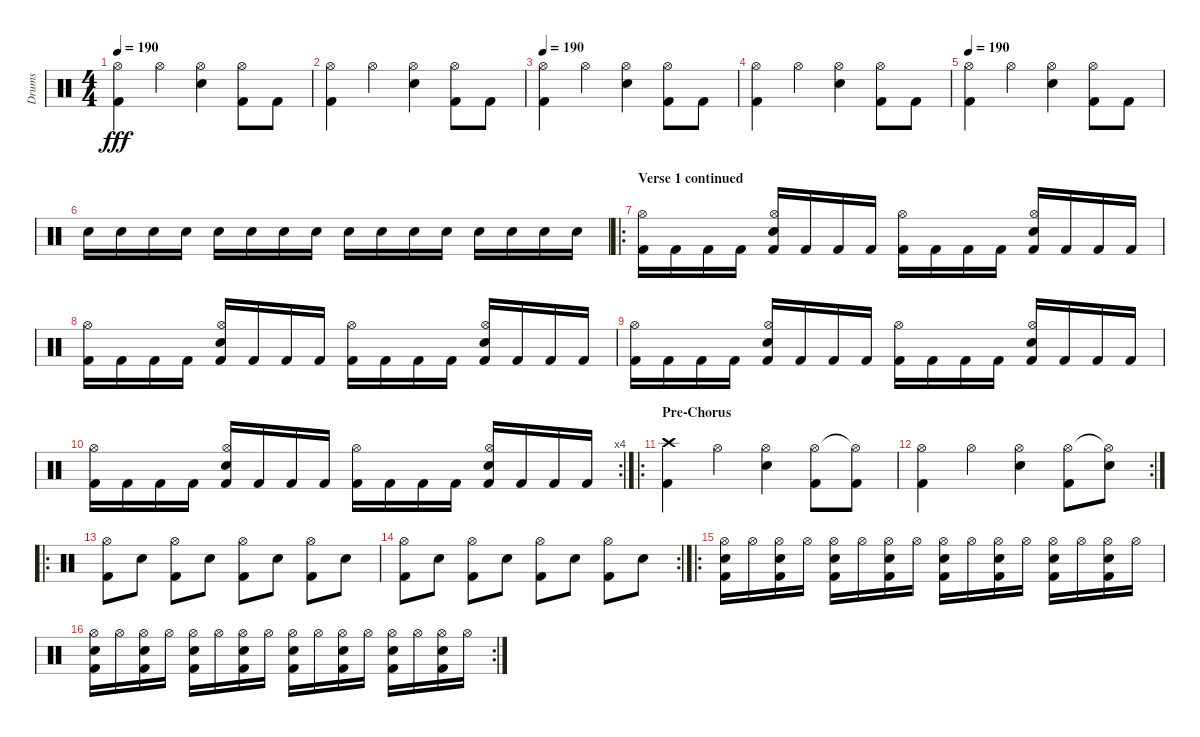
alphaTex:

\track ("Drums" "Drums") {instrument percussion}
\staff {score}
\articulation defaults
\ts (4 4)
\tempo 190
\clef neutral
\ks c
("Kick (hit) 2" "Hi-Hat (open)").4{dy fff} "Hi-Hat (open)".4 ("Hi-Hat (open)" "Electric Snare (hit)").4 ("Kick (hit) 2" "Hi-Hat (open)").8 "Kick (hit) 2".8 |
("Kick (hit) 2" "Hi-Hat (open)").4 "Hi-Hat (open)".4 ("Hi-Hat (open)" "Electric Snare (hit)").4 ("Kick (hit) 2" "Hi-Hat (open)").8 "Kick (hit) 2".8 |
\tempo 190
("Kick (hit) 2" "Hi-Hat (open)").4 "Hi-Hat (open)".4 ("Hi-Hat (open)" "Electric Snare (hit)").4 ("Kick (hit) 2" "Hi-Hat (open)").8 "Kick (hit) 2".8 |
("Kick (hit) 2" "Hi-Hat (open)").4 "Hi-Hat (open)".4 ("Hi-Hat (open)" "Electric Snare (hit)").4 ("Kick (hit) 2" "Hi-Hat (open)").8 "Kick (hit) 2".8 |
\tempo 190
("Kick (hit) 2" "Hi-Hat (open)").4 "Hi-Hat (open)".4 ("Hi-Hat (open)" "Electric Snare (hit)").4 ("Kick (hit) 2" "Hi-Hat (open)").8 "Kick (hit) 2".8 |
"Electric Snare (hit)".16 "Electric Snare (hit)".16 "Electric Snare (hit)".16 "Electric Snare (hit)".16 "Electric Snare (hit)".16 "Electric Snare (hit)".16 "Electric Snare (hit)".16 "Electric Snare (hit)".16 "Electric Snare (hit)".16 "Electric Snare (hit)".16 "Electric Snare (hit)".16 "Electric Snare (hit)".16 "Electric Snare (hit)".16 "Electric Snare (hit)".16 "Electric Snare (hit)".16 "Electric Snare (hit)".16 |
\ro
\section ("" "Verse 1 continued")
("Kick (hit) 2" "Hi-Hat (open)").16 "Kick (hit) 2".16 "Kick (hit) 2".16 "Kick (hit) 2".16 ("Kick (hit) 2" "Hi-Hat (open)" "Electric Snare (hit)").16 "Kick (hit) 2".16 "Kick (hit) 2".16 "Kick (hit) 2".16 ("Kick (hit) 2" "Hi-Hat (open)").16 "Kick (hit) 2".16 "Kick (hit) 2".16 "Kick (hit) 2".16 ("Kick (hit) 2" "Hi-Hat (open)" "Electric Snare (hit)").16 "Kick (hit) 2".16 "Kick (hit) 2".16 "Kick (hit) 2".16 |
("Kick (hit) 2" "Hi-Hat (open)").16 "Kick (hit) 2".16 "Kick (hit) 2".16 "Kick (hit) 2".16 ("Kick (hit) 2" "Hi-Hat (open)" "Electric Snare (hit)").16 "Kick (hit) 2".16 "Kick (hit) 2".16 "Kick (hit) 2".16 ("Kick (hit) 2" "Hi-Hat (open)").16 "Kick (hit) 2".16 "Kick (hit) 2".16 "Kick (hit) 2".16 ("Kick (hit) 2" "Hi-Hat (open)" "Electric Snare (hit)").16 "Kick (hit) 2".16 "Kick (hit) 2".16 "Kick (hit) 2".16 |
("Kick (hit) 2" "Hi-Hat (open)").16 "Kick (hit) 2".16 "Kick (hit) 2".16 "Kick (hit) 2".16 ("Kick (hit) 2" "Hi-Hat (open)" "Electric Snare (hit)").16 "Kick (hit) 2".16 "Kick (hit) 2".16 "Kick (hit) 2".16 ("Kick (hit) 2" "Hi-Hat (open)").16 "Kick (hit) 2".16 "Kick (hit) 2".16 "Kick (hit) 2".16 ("Kick (hit) 2" "Hi-Hat (open)" "Electric Snare (hit)").16 "Kick (hit) 2".16 "Kick (hit) 2".16 "Kick (hit) 2".16 |
\rc 4
("Kick (hit) 2" "Hi-Hat (open)").16 "Kick (hit) 2".16 "Kick (hit) 2".16 "Kick (hit) 2".16 ("Kick (hit) 2" "Hi-Hat (open)" "Electric Snare (hit)").16 "Kick (hit) 2".16 "Kick (hit) 2".16 "Kick (hit) 2".16 ("Kick (hit) 2" "Hi-Hat (open)").16 "Kick (hit) 2".16 "Kick (hit) 2".16 "Kick (hit) 2".16 ("Kick (hit) 2" "Hi-Hat (open)" "Electric Snare (hit)").16 "Kick (hit) 2".16 "Kick (hit) 2".16 "Kick (hit) 2".16 |
\ro
\section ("" "Pre-Chorus")
("Crash high (hit)" "Kick (hit) 2").4 "Hi-Hat (open)".4 ("Hi-Hat (open)" "Electric Snare (hit)").4 ("Hi-Hat (open)" "Kick (hit) 2").8 ("Hi-Hat (open)"{t} "Kick (hit) 2").8 |
\rc 2
("Hi-Hat (open)" "Kick (hit) 2").4 "Hi-Hat (open)".4 ("Hi-Hat (open)" "Electric Snare (hit)").4 ("Hi-Hat (open)" "Kick (hit) 2").8 ("Hi-Hat (open)"{t} "Electric Snare (hit)").8 |
\ro
("Kick (hit) 2" "Hi-Hat (open)").8 "Electric Snare (hit)".8 ("Kick (hit) 2" "Hi-Hat (open)").8 "Electric Snare (hit)".8 ("Kick (hit) 2" "Hi-Hat (open)").8 "Electric Snare (hit)".8 ("Kick (hit) 2" "Hi-Hat (open)").8 "Electric Snare (hit)".8 |
\rc 2
("Kick (hit) 2" "Hi-Hat (open)").8 "Electric Snare (hit)".8 ("Kick (hit) 2" "Hi-Hat (open)").8 "Electric Snare (hit)".8 ("Kick (hit) 2" "Hi-Hat (open)").8 "Electric Snare (hit)".8 ("Kick (hit) 2" "Hi-Hat (open)").8 "Electric Snare (hit)".8 |
\ro
("Kick (hit) 2" "Hi-Hat (open)" "Electric Snare (hit)").16 "Hi-Hat (open)".16 ("Kick (hit) 2" "Hi-Hat (open)" "Electric Snare (hit)").16 "Hi-Hat (open)".16 ("Kick (hit) 2" "Hi-Hat (open)" "Electric Snare (hit)").16 "Hi-Hat (open)".16 ("Kick (hit) 2" "Hi-Hat (open)" "Electric Snare (hit)").16 "Hi-Hat (open)".16 ("Kick (hit) 2" "Hi-Hat (open)" "Electric Snare (hit)").16 "Hi-Hat (open)".16 ("Kick (hit) 2" "Hi-Hat (open)" "Electric Snare (hit)").16 "Hi-Hat (open)".16 ("Kick (hit) 2" "Hi-Hat (open)" "Electric Snare (hit)").16 "Hi-Hat (open)".16 ("Kick (hit) 2" "Hi-Hat (open)" "Electric Snare (hit)").16 "Hi-Hat (open)".16 |
\rc 2
("Kick (hit) 2" "Hi-Hat (open)" "Electric Snare (hit)").16 "Hi-Hat (open)".16 ("Kick (hit) 2" "Hi-Hat (open)" "Electric Snare (hit)").16 "Hi-Hat (open)".16 ("Kick (hit) 2" "Hi-Hat (open)" "Electric Snare (hit)").16 "Hi-Hat (open)".16 ("Kick (hit) 2" "Hi-Hat (open)" "Electric Snare (hit)").16 "Hi-Hat (open)".16 ("Kick (hit) 2" "Hi-Hat (open)" "Electric Snare (hit)").16 "Hi-Hat (open)".16 ("Kick (hit) 2" "Hi-Hat (open)" "Electric Snare (hit)").16 "Hi-Hat (open)".16 ("Kick (hit) 2" "Hi-Hat (open)" "Electric Snare (hit)").16 "Hi-Hat (open)".16 ("Kick (hit) 2" "Hi-Hat (open)" "Electric Snare (hit)").16 "Hi-Hat (open)".16
